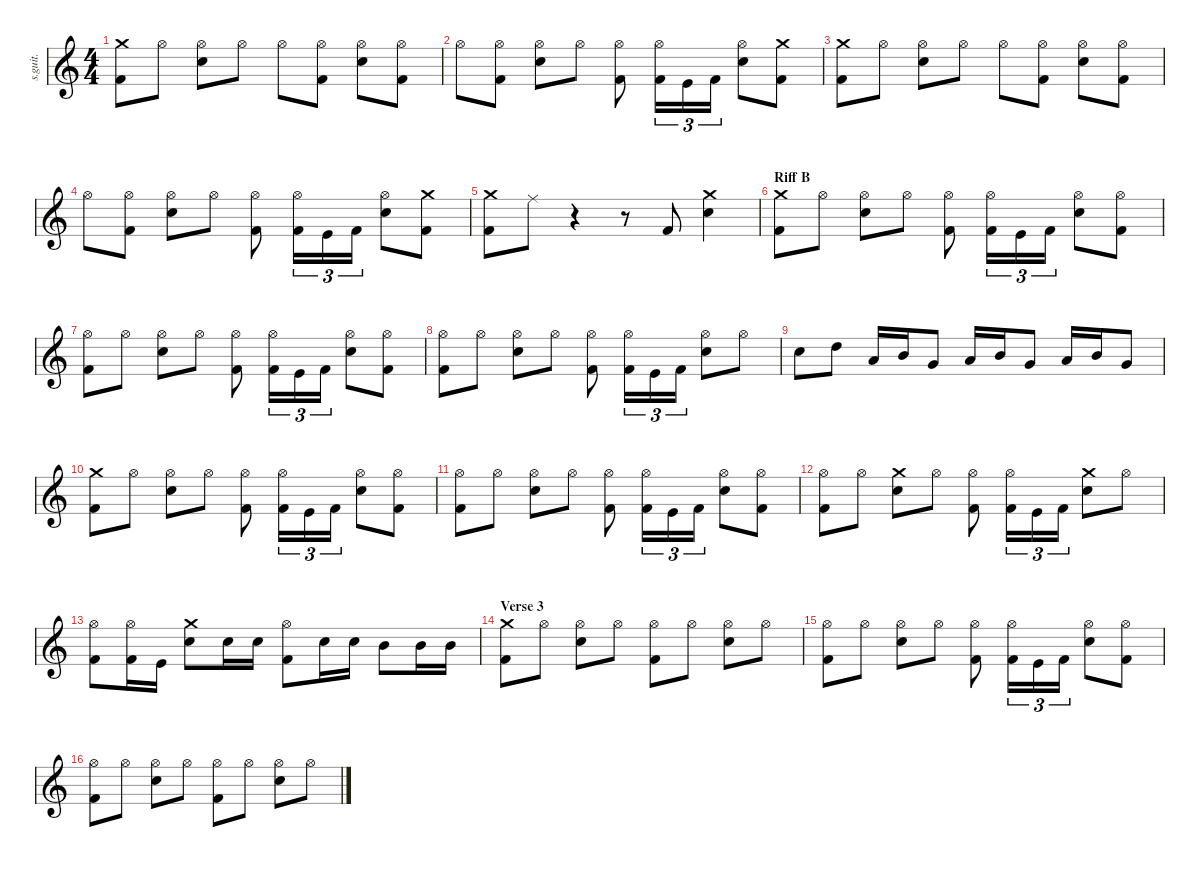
\defaultSystemsLayout 4
\hideDynamics
\bracketExtendMode nobrackets
\track ("Lars Ulrich - Drums" "s.guit.") {instrument percussion}
\staff {score}
\articulation defaults
\ts (4 4)
\tempo (140 hide)
\clef g2
\ks c
("Crash medium (hit)" "Kick (hit) 2").8{lyrics (0 "") lyrics (1 "") lyrics (2 "") lyrics (3 "") lyrics (4 "") dy f} "Hi-Hat (open)".8{lyrics (0 "") lyrics (1 "") lyrics (2 "") lyrics (3 "") lyrics (4 "")} ("Hi-Hat (open)" "Snare (hit) 2").8{lyrics (0 "") lyrics (1 "") lyrics (2 "") lyrics (3 "") lyrics (4 "")} "Hi-Hat (open)".8{lyrics (0 "") lyrics (1 "") lyrics (2 "") lyrics (3 "") lyrics (4 "")} "Hi-Hat (open)".8{lyrics (0 "") lyrics (1 "") lyrics (2 "") lyrics (3 "") lyrics (4 "")} ("Hi-Hat (open)" "Kick (hit) 2").8{lyrics (0 "") lyrics (1 "") lyrics (2 "") lyrics (3 "") lyrics (4 "")} ("Hi-Hat (open)" "Snare (hit) 2").8{lyrics (0 "") lyrics (1 "") lyrics (2 "") lyrics (3 "") lyrics (4 "")} ("Hi-Hat (open)" "Kick (hit) 2").8{lyrics (0 "") lyrics (1 "") lyrics (2 "") lyrics (3 "") lyrics (4 "")} |
"Hi-Hat (open)".8{lyrics (0 "") lyrics (1 "") lyrics (2 "") lyrics (3 "") lyrics (4 "")} ("Hi-Hat (open)" "Kick (hit) 2").8{lyrics (0 "") lyrics (1 "") lyrics (2 "") lyrics (3 "") lyrics (4 "")} ("Hi-Hat (open)" "Snare (hit) 2").8{lyrics (0 "") lyrics (1 "") lyrics (2 "") lyrics (3 "") lyrics (4 "")} "Hi-Hat (open)".8{lyrics (0 "") lyrics (1 "") lyrics (2 "") lyrics (3 "") lyrics (4 "")} ("Hi-Hat (open)" "Kick (hit) 2").8{lyrics (0 "") lyrics (1 "") lyrics (2 "") lyrics (3 "") lyrics (4 "")} ("Hi-Hat (open)" "Kick (hit) 2").16{tu (3 2) lyrics (0 "") lyrics (1 "") lyrics (2 "") lyrics (3 "") lyrics (4 "")} "Kick (hit)".16{tu (3 2) lyrics (0 "") lyrics (1 "") lyrics (2 "") lyrics (3 "") lyrics (4 "")} "Kick (hit) 2".16{tu (3 2) lyrics (0 "") lyrics (1 "") lyrics (2 "") lyrics (3 "") lyrics (4 "")} ("Hi-Hat (open)" "Snare (hit) 2").8{lyrics (0 "") lyrics (1 "") lyrics (2 "") lyrics (3 "") lyrics (4 "")} ("Crash medium (hit)" "Kick (hit) 2").8{lyrics (0 "") lyrics (1 "") lyrics (2 "") lyrics (3 "") lyrics (4 "")} |
("Crash medium (hit)" "Kick (hit) 2").8{lyrics (0 "") lyrics (1 "") lyrics (2 "") lyrics (3 "") lyrics (4 "")} "Hi-Hat (open)".8{lyrics (0 "") lyrics (1 "") lyrics (2 "") lyrics (3 "") lyrics (4 "")} ("Hi-Hat (open)" "Snare (hit) 2").8{lyrics (0 "") lyrics (1 "") lyrics (2 "") lyrics (3 "") lyrics (4 "")} "Hi-Hat (open)".8{lyrics (0 "") lyrics (1 "") lyrics (2 "") lyrics (3 "") lyrics (4 "")} "Hi-Hat (open)".8{lyrics (0 "") lyrics (1 "") lyrics (2 "") lyrics (3 "") lyrics (4 "")} ("Hi-Hat (open)" "Kick (hit) 2").8{lyrics (0 "") lyrics (1 "") lyrics (2 "") lyrics (3 "") lyrics (4 "")} ("Hi-Hat (open)" "Snare (hit) 2").8{lyrics (0 "") lyrics (1 "") lyrics (2 "") lyrics (3 "") lyrics (4 "")} ("Hi-Hat (open)" "Kick (hit) 2").8{lyrics (0 "") lyrics (1 "") lyrics (2 "") lyrics (3 "") lyrics (4 "")} |
"Hi-Hat (open)".8{lyrics (0 "") lyrics (1 "") lyrics (2 "") lyrics (3 "") lyrics (4 "")} ("Hi-Hat (open)" "Kick (hit) 2").8{lyrics (0 "") lyrics (1 "") lyrics (2 "") lyrics (3 "") lyrics (4 "")} ("Hi-Hat (open)" "Snare (hit) 2").8{lyrics (0 "") lyrics (1 "") lyrics (2 "") lyrics (3 "") lyrics (4 "")} "Hi-Hat (open)".8{lyrics (0 "") lyrics (1 "") lyrics (2 "") lyrics (3 "") lyrics (4 "")} ("Hi-Hat (open)" "Kick (hit) 2").8{lyrics (0 "") lyrics (1 "") lyrics (2 "") lyrics (3 "") lyrics (4 "")} ("Hi-Hat (open)" "Kick (hit) 2").16{tu (3 2) lyrics (0 "") lyrics (1 "") lyrics (2 "") lyrics (3 "") lyrics (4 "")} "Kick (hit)".16{tu (3 2) lyrics (0 "") lyrics (1 "") lyrics (2 "") lyrics (3 "") lyrics (4 "")} "Kick (hit) 2".16{tu (3 2) lyrics (0 "") lyrics (1 "") lyrics (2 "") lyrics (3 "") lyrics (4 "")} ("Hi-Hat (open)" "Snare (hit) 2").8{lyrics (0 "") lyrics (1 "") lyrics (2 "") lyrics (3 "") lyrics (4 "")} ("Crash medium (hit)" "Kick (hit) 2").8{lyrics (0 "") lyrics (1 "") lyrics (2 "") lyrics (3 "") lyrics (4 "")} |
("Crash medium (hit)" "Kick (hit) 2").8{lyrics (0 "") lyrics (1 "") lyrics (2 "") lyrics (3 "") lyrics (4 "")} "Ride (middle)".8{lyrics (0 "") lyrics (1 "") lyrics (2 "") lyrics (3 "") lyrics (4 "") dy ppp} r.4 r.8 "Kick (hit) 2".8{lyrics (0 "") lyrics (1 "") lyrics (2 "") lyrics (3 "") lyrics (4 "") dy fff} ("Crash medium (hit)" "Snare (hit) 2").4{lyrics (0 "") lyrics (1 "") lyrics (2 "") lyrics (3 "") lyrics (4 "") dy f} |
\section ("" "Riff B")
("Crash medium (hit)" "Kick (hit) 2").8{lyrics (0 "") lyrics (1 "") lyrics (2 "") lyrics (3 "") lyrics (4 "")} "Hi-Hat (open)".8{lyrics (0 "") lyrics (1 "") lyrics (2 "") lyrics (3 "") lyrics (4 "")} ("Hi-Hat (open)" "Snare (hit) 2").8{lyrics (0 "") lyrics (1 "") lyrics (2 "") lyrics (3 "") lyrics (4 "")} "Hi-Hat (open)".8{lyrics (0 "") lyrics (1 "") lyrics (2 "") lyrics (3 "") lyrics (4 "")} ("Hi-Hat (open)" "Kick (hit) 2").8{lyrics (0 "") lyrics (1 "") lyrics (2 "") lyrics (3 "") lyrics (4 "")} ("Hi-Hat (open)" "Kick (hit) 2").16{tu (3 2) lyrics (0 "") lyrics (1 "") lyrics (2 "") lyrics (3 "") lyrics (4 "")} "Kick (hit)".16{tu (3 2) lyrics (0 "") lyrics (1 "") lyrics (2 "") lyrics (3 "") lyrics (4 "")} "Kick (hit) 2".16{tu (3 2) lyrics (0 "") lyrics (1 "") lyrics (2 "") lyrics (3 "") lyrics (4 "")} ("Hi-Hat (open)" "Snare (hit) 2").8{lyrics (0 "") lyrics (1 "") lyrics (2 "") lyrics (3 "") lyrics (4 "")} ("Hi-Hat (open)" "Kick (hit) 2").8{lyrics (0 "") lyrics (1 "") lyrics (2 "") lyrics (3 "") lyrics (4 "")} |
("Hi-Hat (open)" "Kick (hit) 2").8{lyrics (0 "") lyrics (1 "") lyrics (2 "") lyrics (3 "") lyrics (4 "")} "Hi-Hat (open)".8{lyrics (0 "") lyrics (1 "") lyrics (2 "") lyrics (3 "") lyrics (4 "")} ("Hi-Hat (open)" "Snare (hit) 2").8{lyrics (0 "") lyrics (1 "") lyrics (2 "") lyrics (3 "") lyrics (4 "")} "Hi-Hat (open)".8{lyrics (0 "") lyrics (1 "") lyrics (2 "") lyrics (3 "") lyrics (4 "")} ("Hi-Hat (open)" "Kick (hit) 2").8{lyrics (0 "") lyrics (1 "") lyrics (2 "") lyrics (3 "") lyrics (4 "")} ("Hi-Hat (open)" "Kick (hit) 2").16{tu (3 2) lyrics (0 "") lyrics (1 "") lyrics (2 "") lyrics (3 "") lyrics (4 "")} "Kick (hit)".16{tu (3 2) lyrics (0 "") lyrics (1 "") lyrics (2 "") lyrics (3 "") lyrics (4 "")} "Kick (hit) 2".16{tu (3 2) lyrics (0 "") lyrics (1 "") lyrics (2 "") lyrics (3 "") lyrics (4 "")} ("Hi-Hat (open)" "Snare (hit) 2").8{lyrics (0 "") lyrics (1 "") lyrics (2 "") lyrics (3 "") lyrics (4 "")} ("Hi-Hat (open)" "Kick (hit) 2").8{lyrics (0 "") lyrics (1 "") lyrics (2 "") lyrics (3 "") lyrics (4 "")} |
("Hi-Hat (open)" "Kick (hit) 2").8{lyrics (0 "") lyrics (1 "") lyrics (2 "") lyrics (3 "") lyrics (4 "")} "Hi-Hat (open)".8{lyrics (0 "") lyrics (1 "") lyrics (2 "") lyrics (3 "") lyrics (4 "")} ("Hi-Hat (open)" "Snare (hit) 2").8{lyrics (0 "") lyrics (1 "") lyrics (2 "") lyrics (3 "") lyrics (4 "")} "Hi-Hat (open)".8{lyrics (0 "") lyrics (1 "") lyrics (2 "") lyrics (3 "") lyrics (4 "")} ("Hi-Hat (open)" "Kick (hit) 2").8{lyrics (0 "") lyrics (1 "") lyrics (2 "") lyrics (3 "") lyrics (4 "")} ("Hi-Hat (open)" "Kick (hit) 2").16{tu (3 2) lyrics (0 "") lyrics (1 "") lyrics (2 "") lyrics (3 "") lyrics (4 "")} "Kick (hit)".16{tu (3 2) lyrics (0 "") lyrics (1 "") lyrics (2 "") lyrics (3 "") lyrics (4 "")} "Kick (hit) 2".16{tu (3 2) lyrics (0 "") lyrics (1 "") lyrics (2 "") lyrics (3 "") lyrics (4 "")} ("Hi-Hat (open)" "Snare (hit) 2").8{lyrics (0 "") lyrics (1 "") lyrics (2 "") lyrics (3 "") lyrics (4 "")} "Hi-Hat (open)".8{lyrics (0 "") lyrics (1 "") lyrics (2 "") lyrics (3 "") lyrics (4 "")} |
"Snare (hit) 2".8{lyrics (0 "") lyrics (1 "") lyrics (2 "") lyrics (3 "") lyrics (4 "") dy fff} "High Tom (hit)".8{lyrics (0 "") lyrics (1 "") lyrics (2 "") lyrics (3 "") lyrics (4 "")} "Low Tom (hit)".16{lyrics (0 "") lyrics (1 "") lyrics (2 "") lyrics (3 "") lyrics (4 "")} "Mid Tom (hit)".16{lyrics (0 "") lyrics (1 "") lyrics (2 "") lyrics (3 "") lyrics (4 "")} "Very Low Tom (hit)".8{lyrics (0 "") lyrics (1 "") lyrics (2 "") lyrics (3 "") lyrics (4 "") dy ff} "Low Tom (hit)".16{lyrics (0 "") lyrics (1 "") lyrics (2 "") lyrics (3 "") lyrics (4 "") dy fff} "Mid Tom (hit)".16{lyrics (0 "") lyrics (1 "") lyrics (2 "") lyrics (3 "") lyrics (4 "")} "Very Low Tom (hit)".8{lyrics (0 "") lyrics (1 "") lyrics (2 "") lyrics (3 "") lyrics (4 "")} "Low Tom (hit)".16{lyrics (0 "") lyrics (1 "") lyrics (2 "") lyrics (3 "") lyrics (4 "")} "Mid Tom (hit)".16{lyrics (0 "") lyrics (1 "") lyrics (2 "") lyrics (3 "") lyrics (4 "")} "Very Low Tom (hit)".8{lyrics (0 "") lyrics (1 "") lyrics (2 "") lyrics (3 "") lyrics (4 "") dy ff} |
("Crash medium (hit)" "Kick (hit) 2").8{lyrics (0 "") lyrics (1 "") lyrics (2 "") lyrics (3 "") lyrics (4 "") dy f} "Hi-Hat (open)".8{lyrics (0 "") lyrics (1 "") lyrics (2 "") lyrics (3 "") lyrics (4 "")} ("Hi-Hat (open)" "Snare (hit) 2").8{lyrics (0 "") lyrics (1 "") lyrics (2 "") lyrics (3 "") lyrics (4 "")} "Hi-Hat (open)".8{lyrics (0 "") lyrics (1 "") lyrics (2 "") lyrics (3 "") lyrics (4 "")} ("Hi-Hat (open)" "Kick (hit) 2").8{lyrics (0 "") lyrics (1 "") lyrics (2 "") lyrics (3 "") lyrics (4 "")} ("Hi-Hat (open)" "Kick (hit) 2").16{tu (3 2) lyrics (0 "") lyrics (1 "") lyrics (2 "") lyrics (3 "") lyrics (4 "")} "Kick (hit)".16{tu (3 2) lyrics (0 "") lyrics (1 "") lyrics (2 "") lyrics (3 "") lyrics (4 "")} "Kick (hit) 2".16{tu (3 2) lyrics (0 "") lyrics (1 "") lyrics (2 "") lyrics (3 "") lyrics (4 "")} ("Hi-Hat (open)" "Snare (hit) 2").8{lyrics (0 "") lyrics (1 "") lyrics (2 "") lyrics (3 "") lyrics (4 "")} ("Hi-Hat (open)" "Kick (hit) 2").8{lyrics (0 "") lyrics (1 "") lyrics (2 "") lyrics (3 "") lyrics (4 "")} |
("Hi-Hat (open)" "Kick (hit) 2").8{lyrics (0 "") lyrics (1 "") lyrics (2 "") lyrics (3 "") lyrics (4 "")} "Hi-Hat (open)".8{lyrics (0 "") lyrics (1 "") lyrics (2 "") lyrics (3 "") lyrics (4 "")} ("Hi-Hat (open)" "Snare (hit) 2").8{lyrics (0 "") lyrics (1 "") lyrics (2 "") lyrics (3 "") lyrics (4 "")} "Hi-Hat (open)".8{lyrics (0 "") lyrics (1 "") lyrics (2 "") lyrics (3 "") lyrics (4 "")} ("Hi-Hat (open)" "Kick (hit) 2").8{lyrics (0 "") lyrics (1 "") lyrics (2 "") lyrics (3 "") lyrics (4 "")} ("Hi-Hat (open)" "Kick (hit) 2").16{tu (3 2) lyrics (0 "") lyrics (1 "") lyrics (2 "") lyrics (3 "") lyrics (4 "")} "Kick (hit)".16{tu (3 2) lyrics (0 "") lyrics (1 "") lyrics (2 "") lyrics (3 "") lyrics (4 "")} "Kick (hit) 2".16{tu (3 2) lyrics (0 "") lyrics (1 "") lyrics (2 "") lyrics (3 "") lyrics (4 "")} ("Hi-Hat (open)" "Snare (hit) 2").8{lyrics (0 "") lyrics (1 "") lyrics (2 "") lyrics (3 "") lyrics (4 "")} ("Hi-Hat (open)" "Kick (hit) 2").8{lyrics (0 "") lyrics (1 "") lyrics (2 "") lyrics (3 "") lyrics (4 "")} |
("Hi-Hat (open)" "Kick (hit) 2").8{lyrics (0 "") lyrics (1 "") lyrics (2 "") lyrics (3 "") lyrics (4 "")} "Hi-Hat (open)".8{lyrics (0 "") lyrics (1 "") lyrics (2 "") lyrics (3 "") lyrics (4 "")} ("Crash medium (hit)" "Snare (hit) 2").8{lyrics (0 "") lyrics (1 "") lyrics (2 "") lyrics (3 "") lyrics (4 "")} "Hi-Hat (open)".8{lyrics (0 "") lyrics (1 "") lyrics (2 "") lyrics (3 "") lyrics (4 "")} ("Hi-Hat (open)" "Kick (hit) 2").8{lyrics (0 "") lyrics (1 "") lyrics (2 "") lyrics (3 "") lyrics (4 "")} ("Hi-Hat (open)" "Kick (hit) 2").16{tu (3 2) lyrics (0 "") lyrics (1 "") lyrics (2 "") lyrics (3 "") lyrics (4 "")} "Kick (hit)".16{tu (3 2) lyrics (0 "") lyrics (1 "") lyrics (2 "") lyrics (3 "") lyrics (4 "")} "Kick (hit) 2".16{tu (3 2) lyrics (0 "") lyrics (1 "") lyrics (2 "") lyrics (3 "") lyrics (4 "")} ("Crash medium (hit)" "Snare (hit) 2").8{lyrics (0 "") lyrics (1 "") lyrics (2 "") lyrics (3 "") lyrics (4 "")} "Hi-Hat (open)".8{lyrics (0 "") lyrics (1 "") lyrics (2 "") lyrics (3 "") lyrics (4 "")} |
("Hi-Hat (open)" "Kick (hit) 2").8{lyrics (0 "") lyrics (1 "") lyrics (2 "") lyrics (3 "") lyrics (4 "")} ("Hi-Hat (open)" "Kick (hit) 2").16{lyrics (0 "") lyrics (1 "") lyrics (2 "") lyrics (3 "") lyrics (4 "")} "Kick (hit)".16{lyrics (0 "") lyrics (1 "") lyrics (2 "") lyrics (3 "") lyrics (4 "")} ("Crash medium (hit)" "Snare (hit) 2").8{lyrics (0 "") lyrics (1 "") lyrics (2 "") lyrics (3 "") lyrics (4 "")} "Snare (hit) 2".16{lyrics (0 "") lyrics (1 "") lyrics (2 "") lyrics (3 "") lyrics (4 "") dy ff} "Snare (hit) 2".16{lyrics (0 "") lyrics (1 "") lyrics (2 "") lyrics (3 "") lyrics (4 "")} ("Hi-Hat (open)" "Kick (hit) 2").8{lyrics (0 "") lyrics (1 "") lyrics (2 "") lyrics (3 "") lyrics (4 "") dy f} "Snare (hit) 2".16{lyrics (0 "") lyrics (1 "") lyrics (2 "") lyrics (3 "") lyrics (4 "") dy ff} "Snare (hit) 2".16{lyrics (0 "") lyrics (1 "") lyrics (2 "") lyrics (3 "") lyrics (4 "")} "Mid Tom (hit)".8{lyrics (0 "") lyrics (1 "") lyrics (2 "") lyrics (3 "") lyrics (4 "") dy fff} "Mid Tom (hit)".16{lyrics (0 "") lyrics (1 "") lyrics (2 "") lyrics (3 "") lyrics (4 "")} "Mid Tom (hit)".16{lyrics (0 "") lyrics (1 "") lyrics (2 "") lyrics (3 "") lyrics (4 "")} |
\section ("" "Verse 3")
("Crash medium (hit)" "Kick (hit) 2").8{lyrics (0 "") lyrics (1 "") lyrics (2 "") lyrics (3 "") lyrics (4 "") dy f} "Hi-Hat (open)".8{lyrics (0 "") lyrics (1 "") lyrics (2 "") lyrics (3 "") lyrics (4 "")} ("Hi-Hat (open)" "Snare (hit) 2").8{lyrics (0 "") lyrics (1 "") lyrics (2 "") lyrics (3 "") lyrics (4 "")} "Hi-Hat (open)".8{lyrics (0 "") lyrics (1 "") lyrics (2 "") lyrics (3 "") lyrics (4 "")} ("Hi-Hat (open)" "Kick (hit) 2").8{lyrics (0 "") lyrics (1 "") lyrics (2 "") lyrics (3 "") lyrics (4 "")} "Hi-Hat (open)".8{lyrics (0 "") lyrics (1 "") lyrics (2 "") lyrics (3 "") lyrics (4 "")} ("Hi-Hat (open)" "Snare (hit) 2").8{lyrics (0 "") lyrics (1 "") lyrics (2 "") lyrics (3 "") lyrics (4 "")} "Hi-Hat (open)".8{lyrics (0 "") lyrics (1 "") lyrics (2 "") lyrics (3 "") lyrics (4 "")} |
("Hi-Hat (open)" "Kick (hit) 2").8{lyrics (0 "") lyrics (1 "") lyrics (2 "") lyrics (3 "") lyrics (4 "")} "Hi-Hat (open)".8{lyrics (0 "") lyrics (1 "") lyrics (2 "") lyrics (3 "") lyrics (4 "")} ("Hi-Hat (open)" "Snare (hit) 2").8{lyrics (0 "") lyrics (1 "") lyrics (2 "") lyrics (3 "") lyrics (4 "")} "Hi-Hat (open)".8{lyrics (0 "") lyrics (1 "") lyrics (2 "") lyrics (3 "") lyrics (4 "")} ("Hi-Hat (open)" "Kick (hit) 2").8{lyrics (0 "") lyrics (1 "") lyrics (2 "") lyrics (3 "") lyrics (4 "")} ("Hi-Hat (open)" "Kick (hit) 2").16{tu (3 2) lyrics (0 "") lyrics (1 "") lyrics (2 "") lyrics (3 "") lyrics (4 "")} "Kick (hit)".16{tu (3 2) lyrics (0 "") lyrics (1 "") lyrics (2 "") lyrics (3 "") lyrics (4 "")} "Kick (hit) 2".16{tu (3 2) lyrics (0 "") lyrics (1 "") lyrics (2 "") lyrics (3 "") lyrics (4 "")} ("Hi-Hat (open)" "Snare (hit) 2").8{lyrics (0 "") lyrics (1 "") lyrics (2 "") lyrics (3 "") lyrics (4 "")} ("Hi-Hat (open)" "Kick (hit) 2").8{lyrics (0 "") lyrics (1 "") lyrics (2 "") lyrics (3 "") lyrics (4 "")} |
("Hi-Hat (open)" "Kick (hit) 2").8{lyrics (0 "") lyrics (1 "") lyrics (2 "") lyrics (3 "") lyrics (4 "")} "Hi-Hat (open)".8{lyrics (0 "") lyrics (1 "") lyrics (2 "") lyrics (3 "") lyrics (4 "")} ("Hi-Hat (open)" "Snare (hit) 2").8{lyrics (0 "") lyrics (1 "") lyrics (2 "") lyrics (3 "") lyrics (4 "")} "Hi-Hat (open)".8{lyrics (0 "") lyrics (1 "") lyrics (2 "") lyrics (3 "") lyrics (4 "")} ("Hi-Hat (open)" "Kick (hit) 2").8{lyrics (0 "") lyrics (1 "") lyrics (2 "") lyrics (3 "") lyrics (4 "")} "Hi-Hat (open)".8{lyrics (0 "") lyrics (1 "") lyrics (2 "") lyrics (3 "") lyrics (4 "")} ("Hi-Hat (open)" "Snare (hit) 2").8{lyrics (0 "") lyrics (1 "") lyrics (2 "") lyrics (3 "") lyrics (4 "")} "Hi-Hat (open)".8{lyrics (0 "") lyrics (1 "") lyrics (2 "") lyrics (3 "") lyrics (4 "")}
